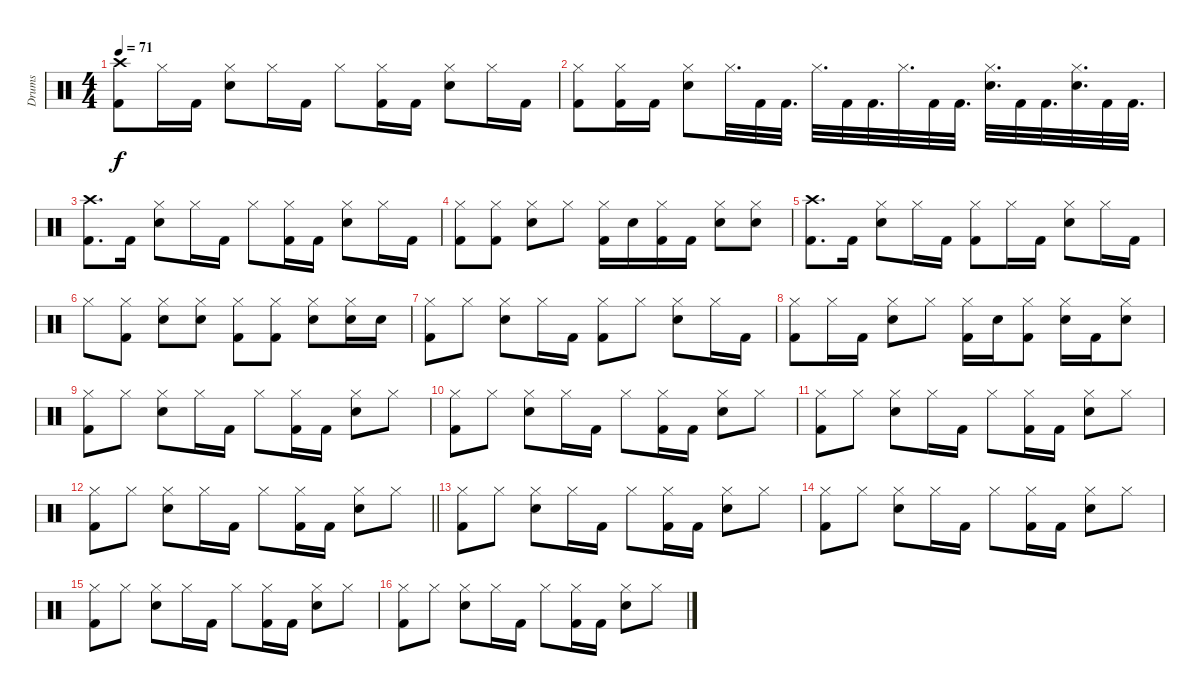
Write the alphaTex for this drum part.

\track ("Drums" "Drums") {instrument percussion}
\staff {score}
\articulation defaults
\ts (4 4)
\tempo 71
\clef neutral
\ks c
("Crash high (hit)" "Kick (hit) 2").8{dy f} "Hi-Hat (closed)".16 "Kick (hit) 2".16 ("Hi-Hat (closed)" "Snare (hit) 2").8 "Hi-Hat (closed)".16 "Kick (hit) 2".16 "Hi-Hat (closed)".8 ("Hi-Hat (closed)" "Kick (hit) 2").16 "Kick (hit) 2".16 ("Hi-Hat (closed)" "Snare (hit) 2").8 "Hi-Hat (closed)".16 "Kick (hit) 2".16 |
("Hi-Hat (closed)" "Kick (hit) 2").8 ("Hi-Hat (closed)" "Kick (hit) 2").16 "Kick (hit) 2".16 ("Hi-Hat (closed)" "Snare (hit) 2").8 "Hi-Hat (closed)".32{d} "Kick (hit) 2".32 "Kick (hit) 2".32{d} "Hi-Hat (closed)".32{d} "Kick (hit) 2".32 "Kick (hit) 2".32{d} "Hi-Hat (closed)".32{d} "Kick (hit) 2".32 "Kick (hit) 2".32{d} ("Snare (hit) 2" "Hi-Hat (closed)").32{d} "Kick (hit) 2".32 "Kick (hit) 2".32{d} ("Snare (hit) 2" "Hi-Hat (closed)").32{d} "Kick (hit) 2".32 "Kick (hit) 2".32{d} |
("Crash high (hit)" "Kick (hit) 2").8{d} "Kick (hit) 2".16 ("Hi-Hat (closed)" "Snare (hit) 2").8 "Hi-Hat (closed)".16 "Kick (hit) 2".16 "Hi-Hat (closed)".8 ("Hi-Hat (closed)" "Kick (hit) 2").16 "Kick (hit) 2".16 ("Hi-Hat (closed)" "Snare (hit) 2").8 "Hi-Hat (closed)".16 "Kick (hit) 2".16 |
("Kick (hit) 2" "Hi-Hat (closed)").8 ("Kick (hit) 2" "Hi-Hat (closed)").8 ("Hi-Hat (closed)" "Snare (hit) 2").8 "Hi-Hat (closed)".8 ("Hi-Hat (closed)" "Kick (hit) 2").16 "Snare (hit) 2".16 ("Kick (hit) 2" "Hi-Hat (closed)").16 "Kick (hit) 2".16 ("Hi-Hat (closed)" "Snare (hit) 2").8 ("Hi-Hat (closed)" "Snare (hit) 2").8 |
("Crash high (hit)" "Kick (hit) 2").8{d} "Kick (hit) 2".16 ("Snare (hit) 2" "Hi-Hat (closed)").8 "Hi-Hat (closed)".16 "Kick (hit) 2".16 ("Hi-Hat (closed)" "Kick (hit) 2").8 "Hi-Hat (closed)".16 "Kick (hit) 2".16 ("Snare (hit) 2" "Hi-Hat (closed)").8 "Hi-Hat (closed)".16 "Kick (hit) 2".16 |
"Hi-Hat (closed)".8 ("Kick (hit) 2" "Hi-Hat (closed)").8 ("Snare (hit) 2" "Hi-Hat (closed)").8 ("Snare (hit) 2" "Hi-Hat (closed)").8 ("Kick (hit) 2" "Hi-Hat (closed)").8 ("Kick (hit) 2" "Hi-Hat (closed)").8 ("Hi-Hat (closed)" "Snare (hit) 2").8 ("Hi-Hat (closed)" "Snare (hit) 2").16 "Snare (hit) 2".16 |
("Kick (hit) 2" "Hi-Hat (closed)").8 "Hi-Hat (closed)".8 ("Snare (hit) 2" "Hi-Hat (closed)").8 "Hi-Hat (closed)".16 "Kick (hit) 2".16 ("Kick (hit) 2" "Hi-Hat (closed)").8 "Hi-Hat (closed)".8 ("Snare (hit) 2" "Hi-Hat (closed)").8 "Hi-Hat (closed)".16 "Kick (hit) 2".16 |
("Hi-Hat (closed)" "Kick (hit) 2").8 "Hi-Hat (closed)".16 "Kick (hit) 2".16 ("Snare (hit) 2" "Hi-Hat (closed)").8 "Hi-Hat (closed)".8 ("Hi-Hat (closed)" "Kick (hit) 2").16 "Snare (hit) 2".16 ("Hi-Hat (closed)" "Kick (hit) 2").8 ("Snare (hit) 2" "Hi-Hat (closed)").16 "Kick (hit) 2".16 ("Snare (hit) 2" "Hi-Hat (closed)").8 |
("Hi-Hat (closed)" "Kick (hit) 2").8 "Hi-Hat (closed)".8 ("Hi-Hat (closed)" "Snare (hit) 2").8 "Hi-Hat (closed)".16 "Kick (hit) 2".16 "Hi-Hat (closed)".8 ("Hi-Hat (closed)" "Kick (hit) 2").16 "Kick (hit) 2".16 ("Hi-Hat (closed)" "Snare (hit) 2").8 "Hi-Hat (closed)".8 |
("Hi-Hat (closed)" "Kick (hit) 2").8 "Hi-Hat (closed)".8 ("Hi-Hat (closed)" "Snare (hit) 2").8 "Hi-Hat (closed)".16 "Kick (hit) 2".16 "Hi-Hat (closed)".8 ("Hi-Hat (closed)" "Kick (hit) 2").16 "Kick (hit) 2".16 ("Hi-Hat (closed)" "Snare (hit) 2").8 "Hi-Hat (closed)".8 |
("Hi-Hat (closed)" "Kick (hit) 2").8 "Hi-Hat (closed)".8 ("Hi-Hat (closed)" "Snare (hit) 2").8 "Hi-Hat (closed)".16 "Kick (hit) 2".16 "Hi-Hat (closed)".8 ("Hi-Hat (closed)" "Kick (hit) 2").16 "Kick (hit) 2".16 ("Hi-Hat (closed)" "Snare (hit) 2").8 "Hi-Hat (closed)".8 |
\barLineRight lightlight
("Hi-Hat (closed)" "Kick (hit) 2").8 "Hi-Hat (closed)".8 ("Hi-Hat (closed)" "Snare (hit) 2").8 "Hi-Hat (closed)".16 "Kick (hit) 2".16 "Hi-Hat (closed)".8 ("Hi-Hat (closed)" "Kick (hit) 2").16 "Kick (hit) 2".16 ("Hi-Hat (closed)" "Snare (hit) 2").8 "Hi-Hat (closed)".8 |
("Hi-Hat (closed)" "Kick (hit) 2").8 "Hi-Hat (closed)".8 ("Hi-Hat (closed)" "Snare (hit) 2").8 "Hi-Hat (closed)".16 "Kick (hit) 2".16 "Hi-Hat (closed)".8 ("Hi-Hat (closed)" "Kick (hit) 2").16 "Kick (hit) 2".16 ("Hi-Hat (closed)" "Snare (hit) 2").8 "Hi-Hat (closed)".8 |
("Hi-Hat (closed)" "Kick (hit) 2").8 "Hi-Hat (closed)".8 ("Hi-Hat (closed)" "Snare (hit) 2").8 "Hi-Hat (closed)".16 "Kick (hit) 2".16 "Hi-Hat (closed)".8 ("Hi-Hat (closed)" "Kick (hit) 2").16 "Kick (hit) 2".16 ("Hi-Hat (closed)" "Snare (hit) 2").8 "Hi-Hat (closed)".8 |
("Hi-Hat (closed)" "Kick (hit) 2").8 "Hi-Hat (closed)".8 ("Hi-Hat (closed)" "Snare (hit) 2").8 "Hi-Hat (closed)".16 "Kick (hit) 2".16 "Hi-Hat (closed)".8 ("Hi-Hat (closed)" "Kick (hit) 2").16 "Kick (hit) 2".16 ("Hi-Hat (closed)" "Snare (hit) 2").8 "Hi-Hat (closed)".8 |
("Hi-Hat (closed)" "Kick (hit) 2").8 "Hi-Hat (closed)".8 ("Hi-Hat (closed)" "Snare (hit) 2").8 "Hi-Hat (closed)".16 "Kick (hit) 2".16 "Hi-Hat (closed)".8 ("Hi-Hat (closed)" "Kick (hit) 2").16 "Kick (hit) 2".16 ("Hi-Hat (closed)" "Snare (hit) 2").8 "Hi-Hat (closed)".8
